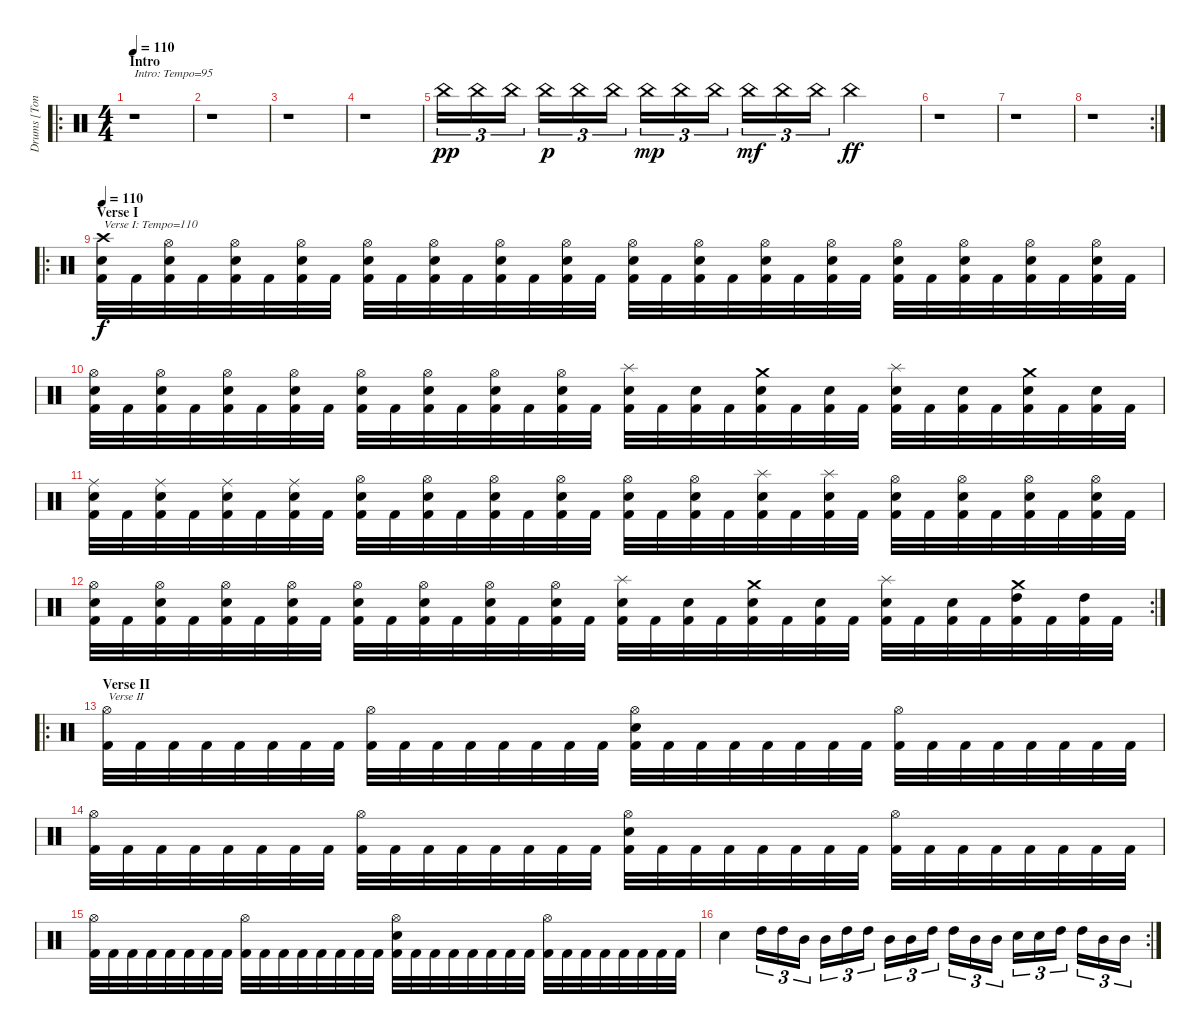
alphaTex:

\track ("Drums [Tony Laureano]" "Drums [Ton") {instrument percussion}
\staff {score}
\articulation defaults
\ro
\ts (4 4)
\section ("" "Intro")
\tempo 110
\tempo 95
\tempo 110
\clef neutral
\ks c
r.1{txt "Intro: Tempo=95" dy pp} |
r.1 |
r.1 |
r.1 |
"China (hit)".16{tu (3 2)} "China (hit)".16{tu (3 2)} "China (hit)".16{tu (3 2)} "China (hit)".16{tu (3 2) dy p} "China (hit)".16{tu (3 2)} "China (hit)".16{tu (3 2)} "China (hit)".16{tu (3 2) dy mp} "China (hit)".16{tu (3 2)} "China (hit)".16{tu (3 2)} "China (hit)".16{tu (3 2) dy mf} "China (hit)".16{tu (3 2)} "China (hit)".16{tu (3 2)} "China (hit)".2{dy ff} |
r.1 |
r.1 |
\rc 2
r.1 |
\ro
\section ("" "Verse I")
\tempo 110
("Crash high (hit)" "Electric Snare (hit)" "Kick (hit) 2").32{txt "Verse I: Tempo=110" dy f} "Kick (hit) 2".32 ("Hi-Hat (open)" "Electric Snare (hit)" "Kick (hit) 2").32 "Kick (hit) 2".32 ("Hi-Hat (open)" "Electric Snare (hit)" "Kick (hit) 2").32 "Kick (hit) 2".32 ("Hi-Hat (open)" "Electric Snare (hit)" "Kick (hit) 2").32 "Kick (hit) 2".32 ("Hi-Hat (open)" "Electric Snare (hit)" "Kick (hit) 2").32 "Kick (hit) 2".32 ("Hi-Hat (open)" "Electric Snare (hit)" "Kick (hit) 2").32 "Kick (hit) 2".32 ("Hi-Hat (open)" "Electric Snare (hit)" "Kick (hit) 2").32 "Kick (hit) 2".32 ("Hi-Hat (open)" "Electric Snare (hit)" "Kick (hit) 2").32 "Kick (hit) 2".32 ("Hi-Hat (open)" "Electric Snare (hit)" "Kick (hit) 2").32 "Kick (hit) 2".32 ("Hi-Hat (open)" "Electric Snare (hit)" "Kick (hit) 2").32 "Kick (hit) 2".32 ("Hi-Hat (open)" "Electric Snare (hit)" "Kick (hit) 2").32 "Kick (hit) 2".32 ("Hi-Hat (open)" "Electric Snare (hit)" "Kick (hit) 2").32 "Kick (hit) 2".32 ("Hi-Hat (open)" "Electric Snare (hit)" "Kick (hit) 2").32 "Kick (hit) 2".32 ("Hi-Hat (open)" "Electric Snare (hit)" "Kick (hit) 2").32 "Kick (hit) 2".32 ("Hi-Hat (open)" "Electric Snare (hit)" "Kick (hit) 2").32 "Kick (hit) 2".32 ("Hi-Hat (open)" "Electric Snare (hit)" "Kick (hit) 2").32 "Kick (hit) 2".32 |
("Hi-Hat (open)" "Electric Snare (hit)" "Kick (hit) 2").32 "Kick (hit) 2".32 ("Hi-Hat (open)" "Electric Snare (hit)" "Kick (hit) 2").32 "Kick (hit) 2".32 ("Hi-Hat (open)" "Electric Snare (hit)" "Kick (hit) 2").32 "Kick (hit) 2".32 ("Hi-Hat (open)" "Electric Snare (hit)" "Kick (hit) 2").32 "Kick (hit) 2".32 ("Hi-Hat (open)" "Electric Snare (hit)" "Kick (hit) 2").32 "Kick (hit) 2".32 ("Hi-Hat (open)" "Electric Snare (hit)" "Kick (hit) 2").32 "Kick (hit) 2".32 ("Hi-Hat (open)" "Electric Snare (hit)" "Kick (hit) 2").32 "Kick (hit) 2".32 ("Hi-Hat (open)" "Electric Snare (hit)" "Kick (hit) 2").32 "Kick (hit) 2".32 ("Splash (hit)" "Electric Snare (hit)" "Kick (hit) 2").32 "Kick (hit) 2".32 ("Electric Snare (hit)" "Kick (hit) 2").32 "Kick (hit) 2".32 ("Crash medium (hit)" "Electric Snare (hit)" "Kick (hit) 2").32 "Kick (hit) 2".32 ("Electric Snare (hit)" "Kick (hit) 2").32 "Kick (hit) 2".32 ("Splash (hit)" "Electric Snare (hit)" "Kick (hit) 2").32 "Kick (hit) 2".32 ("Electric Snare (hit)" "Kick (hit) 2").32 "Kick (hit) 2".32 ("Crash medium (hit)" "Electric Snare (hit)" "Kick (hit) 2").32 "Kick (hit) 2".32 ("Electric Snare (hit)" "Kick (hit) 2").32 "Kick (hit) 2".32 |
("Ride (middle)" "Electric Snare (hit)" "Kick (hit) 2").32 "Kick (hit) 2".32 ("Ride (middle)" "Electric Snare (hit)" "Kick (hit) 2").32 "Kick (hit) 2".32 ("Ride (middle)" "Electric Snare (hit)" "Kick (hit) 2").32 "Kick (hit) 2".32 ("Ride (middle)" "Electric Snare (hit)" "Kick (hit) 2").32 "Kick (hit) 2".32 ("Hi-Hat (open)" "Electric Snare (hit)" "Kick (hit) 2").32 "Kick (hit) 2".32 ("Hi-Hat (open)" "Electric Snare (hit)" "Kick (hit) 2").32 "Kick (hit) 2".32 ("Hi-Hat (open)" "Electric Snare (hit)" "Kick (hit) 2").32 "Kick (hit) 2".32 ("Hi-Hat (open)" "Electric Snare (hit)" "Kick (hit) 2").32 "Kick (hit) 2".32 ("Hi-Hat (open)" "Electric Snare (hit)" "Kick (hit) 2").32 "Kick (hit) 2".32 ("Hi-Hat (open)" "Electric Snare (hit)" "Kick (hit) 2").32 "Kick (hit) 2".32 ("Splash (hit)" "Electric Snare (hit)" "Kick (hit) 2").32 "Kick (hit) 2".32 ("Splash (hit)" "Electric Snare (hit)" "Kick (hit) 2").32 "Kick (hit) 2".32 ("Hi-Hat (open)" "Electric Snare (hit)" "Kick (hit) 2").32 "Kick (hit) 2".32 ("Hi-Hat (open)" "Electric Snare (hit)" "Kick (hit) 2").32 "Kick (hit) 2".32 ("Hi-Hat (open)" "Electric Snare (hit)" "Kick (hit) 2").32 "Kick (hit) 2".32 ("Hi-Hat (open)" "Electric Snare (hit)" "Kick (hit) 2").32 "Kick (hit) 2".32 |
\rc 2
("Hi-Hat (open)" "Electric Snare (hit)" "Kick (hit) 2").32 "Kick (hit) 2".32 ("Hi-Hat (open)" "Electric Snare (hit)" "Kick (hit) 2").32 "Kick (hit) 2".32 ("Hi-Hat (open)" "Electric Snare (hit)" "Kick (hit) 2").32 "Kick (hit) 2".32 ("Hi-Hat (open)" "Electric Snare (hit)" "Kick (hit) 2").32 "Kick (hit) 2".32 ("Hi-Hat (open)" "Electric Snare (hit)" "Kick (hit) 2").32 "Kick (hit) 2".32 ("Hi-Hat (open)" "Electric Snare (hit)" "Kick (hit) 2").32 "Kick (hit) 2".32 ("Hi-Hat (open)" "Electric Snare (hit)" "Kick (hit) 2").32 "Kick (hit) 2".32 ("Hi-Hat (open)" "Electric Snare (hit)" "Kick (hit) 2").32 "Kick (hit) 2".32 ("Splash (hit)" "Electric Snare (hit)" "Kick (hit) 2").32 "Kick (hit) 2".32 ("Electric Snare (hit)" "Kick (hit) 2").32 "Kick (hit) 2".32 ("Crash medium (hit)" "Electric Snare (hit)" "Kick (hit) 2").32 "Kick (hit) 2".32 ("Electric Snare (hit)" "Kick (hit) 2").32 "Kick (hit) 2".32 ("Splash (hit)" "Electric Snare (hit)" "Kick (hit) 2").32 "Kick (hit) 2".32 ("Electric Snare (hit)" "Kick (hit) 2").32 "Kick (hit) 2".32 ("Crash medium (hit)" "High Tom (hit)" "Kick (hit) 2").32 "Kick (hit) 2".32 ("High Tom (hit)" "Kick (hit) 2").32 "Kick (hit) 2".32 |
\ro
\section ("" "Verse II")
("Hi-Hat (open)" "Kick (hit) 2").32{txt "Verse II"} "Kick (hit) 2".32 "Kick (hit) 2".32 "Kick (hit) 2".32 "Kick (hit) 2".32 "Kick (hit) 2".32 "Kick (hit) 2".32 "Kick (hit) 2".32 ("Hi-Hat (open)" "Kick (hit) 2").32 "Kick (hit) 2".32 "Kick (hit) 2".32 "Kick (hit) 2".32 "Kick (hit) 2".32 "Kick (hit) 2".32 "Kick (hit) 2".32 "Kick (hit) 2".32 ("Hi-Hat (open)" "Electric Snare (hit)" "Kick (hit) 2").32 "Kick (hit) 2".32 "Kick (hit) 2".32 "Kick (hit) 2".32 "Kick (hit) 2".32 "Kick (hit) 2".32 "Kick (hit) 2".32 "Kick (hit) 2".32 ("Hi-Hat (open)" "Kick (hit) 2").32 "Kick (hit) 2".32 "Kick (hit) 2".32 "Kick (hit) 2".32 "Kick (hit) 2".32 "Kick (hit) 2".32 "Kick (hit) 2".32 "Kick (hit) 2".32 |
("Hi-Hat (open)" "Kick (hit) 2").32 "Kick (hit) 2".32 "Kick (hit) 2".32 "Kick (hit) 2".32 "Kick (hit) 2".32 "Kick (hit) 2".32 "Kick (hit) 2".32 "Kick (hit) 2".32 ("Hi-Hat (open)" "Kick (hit) 2").32 "Kick (hit) 2".32 "Kick (hit) 2".32 "Kick (hit) 2".32 "Kick (hit) 2".32 "Kick (hit) 2".32 "Kick (hit) 2".32 "Kick (hit) 2".32 ("Hi-Hat (open)" "Electric Snare (hit)" "Kick (hit) 2").32 "Kick (hit) 2".32 "Kick (hit) 2".32 "Kick (hit) 2".32 "Kick (hit) 2".32 "Kick (hit) 2".32 "Kick (hit) 2".32 "Kick (hit) 2".32 ("Hi-Hat (open)" "Kick (hit) 2").32 "Kick (hit) 2".32 "Kick (hit) 2".32 "Kick (hit) 2".32 "Kick (hit) 2".32 "Kick (hit) 2".32 "Kick (hit) 2".32 "Kick (hit) 2".32 |
("Hi-Hat (open)" "Kick (hit) 2").32 "Kick (hit) 2".32 "Kick (hit) 2".32 "Kick (hit) 2".32 "Kick (hit) 2".32 "Kick (hit) 2".32 "Kick (hit) 2".32 "Kick (hit) 2".32 ("Hi-Hat (open)" "Kick (hit) 2").32 "Kick (hit) 2".32 "Kick (hit) 2".32 "Kick (hit) 2".32 "Kick (hit) 2".32 "Kick (hit) 2".32 "Kick (hit) 2".32 "Kick (hit) 2".32 ("Hi-Hat (open)" "Electric Snare (hit)" "Kick (hit) 2").32 "Kick (hit) 2".32 "Kick (hit) 2".32 "Kick (hit) 2".32 "Kick (hit) 2".32 "Kick (hit) 2".32 "Kick (hit) 2".32 "Kick (hit) 2".32 ("Hi-Hat (open)" "Kick (hit) 2").32 "Kick (hit) 2".32 "Kick (hit) 2".32 "Kick (hit) 2".32 "Kick (hit) 2".32 "Kick (hit) 2".32 "Kick (hit) 2".32 "Kick (hit) 2".32 |
\rc 2 "Electric Snare (hit)".4 "High Tom (hit)".16{tu (3 2)} "High Tom (hit)".16{tu (3 2)} "Mid Tom (hit)".16{tu (3 2)} "Mid Tom (hit)".16{tu (3 2)} "High Tom (hit)".16{tu (3 2)} "High Tom (hit)".16{tu (3 2)} "Mid Tom (hit)".16{tu (3 2)} "Mid Tom (hit)".16{tu (3 2)} "High Tom (hit)".16{tu (3 2)} "High Tom (hit)".16{tu (3 2)} "Mid Tom (hit)".16{tu (3 2)} "Mid Tom (hit)".16{tu (3 2)} "Electric Snare (hit)".16{tu (3 2)} "Electric Snare (hit)".16{tu (3 2)} "High Tom (hit)".16{tu (3 2)} "High Tom (hit)".16{tu (3 2)} "Mid Tom (hit)".16{tu (3 2)} "Mid Tom (hit)".16{tu (3 2)}
